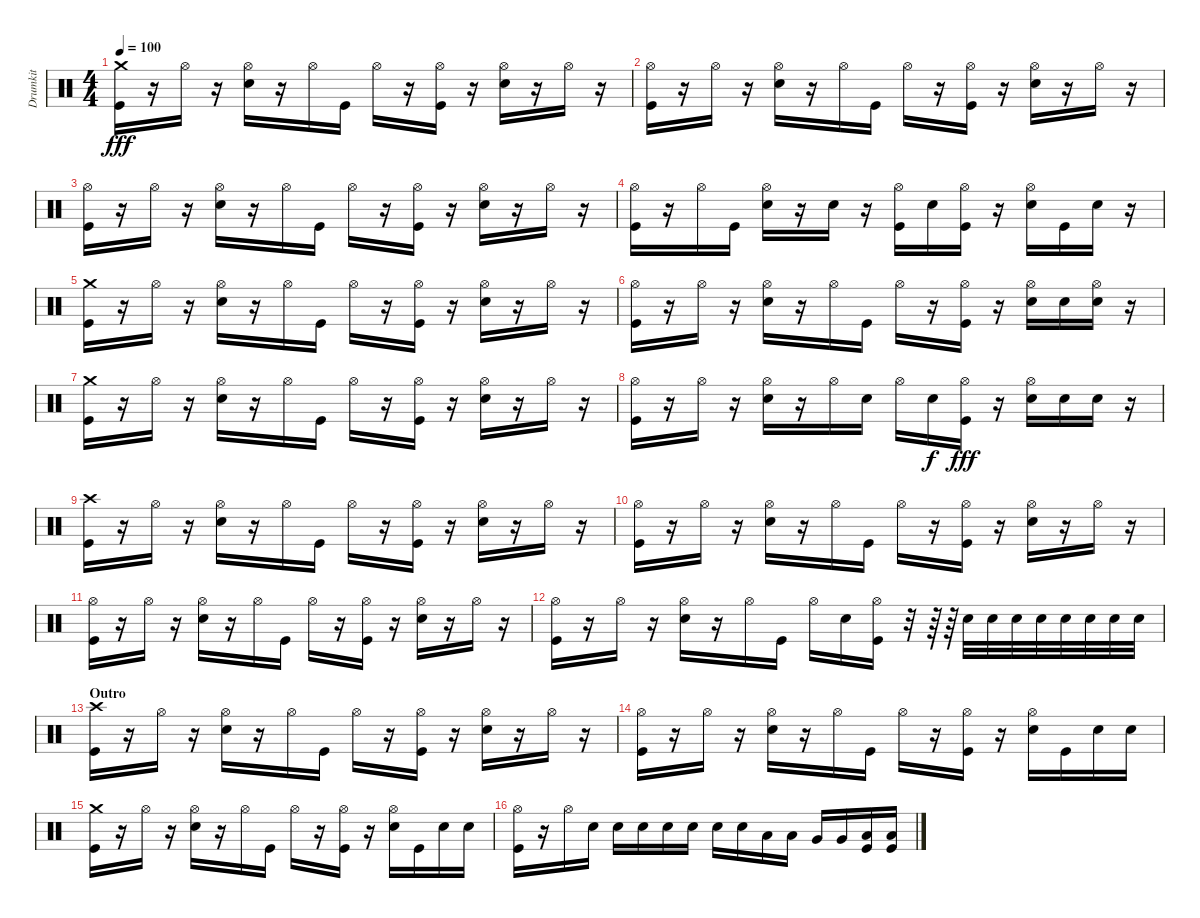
\track ("Drumkit" "Drumkit") {instrument percussion}
\staff {score}
\articulation defaults
\ts (4 4)
\tempo 100
\clef neutral
\ks c
("Crash medium (hit)" "Kick (hit)").16{dy fff} r.16 "Hi-Hat (open)".16 r.16 ("Hi-Hat (open)" "Snare (hit) 2").16 r.16 "Hi-Hat (open)".16 "Kick (hit)".16 "Hi-Hat (open)".16 r.16 ("Hi-Hat (open)" "Kick (hit)").16 r.16 ("Hi-Hat (open)" "Snare (hit) 2").16 r.16 "Hi-Hat (open)".16 r.16 |
("Hi-Hat (open)" "Kick (hit)").16 r.16 "Hi-Hat (open)".16 r.16 ("Hi-Hat (open)" "Snare (hit) 2").16 r.16 "Hi-Hat (open)".16 "Kick (hit)".16 "Hi-Hat (open)".16 r.16 ("Hi-Hat (open)" "Kick (hit)").16 r.16 ("Hi-Hat (open)" "Snare (hit) 2").16 r.16 "Hi-Hat (open)".16 r.16 |
("Hi-Hat (open)" "Kick (hit)").16 r.16 "Hi-Hat (open)".16 r.16 ("Hi-Hat (open)" "Snare (hit) 2").16 r.16 "Hi-Hat (open)".16 "Kick (hit)".16 "Hi-Hat (open)".16 r.16 ("Hi-Hat (open)" "Kick (hit)").16 r.16 ("Hi-Hat (open)" "Snare (hit) 2").16 r.16 "Hi-Hat (open)".16 r.16 |
("Hi-Hat (open)" "Kick (hit)").16 r.16 "Hi-Hat (open)".16 "Kick (hit)".16 ("Hi-Hat (open)" "Snare (hit) 2").16 r.16 "Snare (hit) 2".16 r.16 ("Hi-Hat (open)" "Kick (hit)").16 "Snare (hit) 2".16 ("Hi-Hat (open)" "Kick (hit)").16 r.16 ("Hi-Hat (open)" "Snare (hit) 2").16 "Kick (hit)".16 "Snare (hit) 2".16 r.16 |
("Crash medium (hit)" "Kick (hit)").16 r.16 "Hi-Hat (open)".16 r.16 ("Hi-Hat (open)" "Snare (hit) 2").16 r.16 "Hi-Hat (open)".16 "Kick (hit)".16 "Hi-Hat (open)".16 r.16 ("Hi-Hat (open)" "Kick (hit)").16 r.16 ("Hi-Hat (open)" "Snare (hit) 2").16 r.16 "Hi-Hat (open)".16 r.16 |
("Hi-Hat (open)" "Kick (hit)").16 r.16 "Hi-Hat (open)".16 r.16 ("Hi-Hat (open)" "Snare (hit) 2").16 r.16 "Hi-Hat (open)".16 "Kick (hit)".16 "Hi-Hat (open)".16 r.16 ("Hi-Hat (open)" "Kick (hit)").16 r.16 ("Hi-Hat (open)" "Snare (hit) 2").16 "Snare (hit) 2".16 ("Hi-Hat (open)" "Snare (hit) 2").16 r.16 |
("Crash medium (hit)" "Kick (hit)").16 r.16 "Hi-Hat (open)".16 r.16 ("Hi-Hat (open)" "Snare (hit) 2").16 r.16 "Hi-Hat (open)".16 "Kick (hit)".16 "Hi-Hat (open)".16 r.16 ("Hi-Hat (open)" "Kick (hit)").16 r.16 ("Hi-Hat (open)" "Snare (hit) 2").16 r.16 "Hi-Hat (open)".16 r.16 |
("Hi-Hat (open)" "Kick (hit)").16 r.16 "Hi-Hat (open)".16 r.16 ("Hi-Hat (open)" "Snare (hit) 2").16 r.16 "Hi-Hat (open)".16 "Snare (hit) 2".16 "Hi-Hat (open)".16 "Snare (hit) 2".16{dy f} ("Hi-Hat (open)" "Kick (hit)").16{dy fff} r.16 ("Hi-Hat (open)" "Snare (hit) 2").16 "Snare (hit) 2".16 "Snare (hit) 2".16 r.16 |
("Crash high (hit)" "Kick (hit)").16 r.16 "Hi-Hat (open)".16 r.16 ("Hi-Hat (open)" "Snare (hit) 2").16 r.16 "Hi-Hat (open)".16 "Kick (hit)".16 "Hi-Hat (open)".16 r.16 ("Hi-Hat (open)" "Kick (hit)").16 r.16 ("Hi-Hat (open)" "Snare (hit) 2").16 r.16 "Hi-Hat (open)".16 r.16 |
("Hi-Hat (open)" "Kick (hit)").16 r.16 "Hi-Hat (open)".16 r.16 ("Hi-Hat (open)" "Snare (hit) 2").16 r.16 "Hi-Hat (open)".16 "Kick (hit)".16 "Hi-Hat (open)".16 r.16 ("Hi-Hat (open)" "Kick (hit)").16 r.16 ("Hi-Hat (open)" "Snare (hit) 2").16 r.16 "Hi-Hat (open)".16 r.16 |
("Hi-Hat (open)" "Kick (hit)").16 r.16 "Hi-Hat (open)".16 r.16 ("Hi-Hat (open)" "Snare (hit) 2").16 r.16 "Hi-Hat (open)".16 "Kick (hit)".16 "Hi-Hat (open)".16 r.16 ("Hi-Hat (open)" "Kick (hit)").16 r.16 ("Hi-Hat (open)" "Snare (hit) 2").16 r.16 "Hi-Hat (open)".16 r.16 |
("Hi-Hat (open)" "Kick (hit)").16 r.16 "Hi-Hat (open)".16 r.16 ("Hi-Hat (open)" "Snare (hit) 2").16 r.16 "Hi-Hat (open)".16 "Kick (hit)".16 "Hi-Hat (open)".16 "Snare (hit) 2".16 ("Hi-Hat (open)" "Kick (hit)").16 r.32 r.64 r.64 "Snare (hit) 2".32 "Snare (hit) 2".32 "Snare (hit) 2".32 "Snare (hit) 2".32 "Snare (hit) 2".32 "Snare (hit) 2".32 "Snare (hit) 2".32 "Snare (hit) 2".32 |
\section ("" "Outro")
("Crash high (hit)" "Kick (hit)").16 r.16 "Hi-Hat (open)".16 r.16 ("Hi-Hat (open)" "Snare (hit) 2").16 r.16 "Hi-Hat (open)".16 "Kick (hit)".16 "Hi-Hat (open)".16 r.16 ("Hi-Hat (open)" "Kick (hit)").16 r.16 ("Hi-Hat (open)" "Snare (hit) 2").16 r.16 "Hi-Hat (open)".16 r.16 |
("Hi-Hat (open)" "Kick (hit)").16 r.16 "Hi-Hat (open)".16 r.16 ("Hi-Hat (open)" "Snare (hit) 2").16 r.16 "Hi-Hat (open)".16 "Kick (hit)".16 "Hi-Hat (open)".16 r.16 ("Hi-Hat (open)" "Kick (hit)").16 r.16 ("Hi-Hat (open)" "Snare (hit) 2").16 "Kick (hit)".16 "Snare (hit) 2".16 "Snare (hit) 2".16 |
("Crash medium (hit)" "Kick (hit)").16 r.16 "Hi-Hat (open)".16 r.16 ("Hi-Hat (open)" "Snare (hit) 2").16 r.16 "Hi-Hat (open)".16 "Kick (hit)".16 "Hi-Hat (open)".16 r.16 ("Hi-Hat (open)" "Kick (hit)").16 r.16 ("Hi-Hat (open)" "Snare (hit) 2").16 "Kick (hit)".16 "Snare (hit) 2".16 "Snare (hit) 2".16 |
("Hi-Hat (open)" "Kick (hit)").16 r.16 "Hi-Hat (open)".16 "Snare (hit) 2".16 "Snare (hit) 2".16 "Snare (hit) 2".16 "Snare (hit) 2".16 "Snare (hit) 2".16 "Snare (hit) 2".16 "Snare (hit) 2".16 "Low Tom (hit)".16 "Low Tom (hit)".16 "Very Low Tom (hit)".16 "Very Low Tom (hit)".16 ("Low Floor Tom (hit)" "Kick (hit)").16 ("Low Floor Tom (hit)" "Kick (hit)").16
